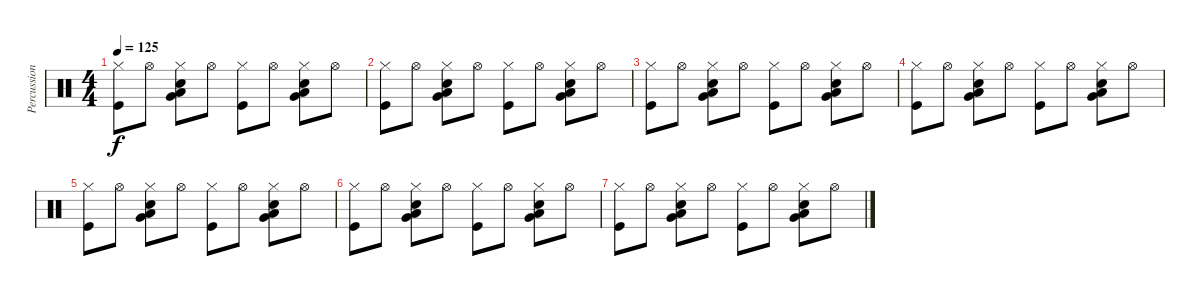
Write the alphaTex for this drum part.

\track ("Percussions" "Percussion") {instrument percussion}
\staff {score}
\articulation defaults
\ts (4 4)
\tempo 125
\clef neutral
\ks c
("Hi-Hat (closed)" "Kick (hit)").8{dy f} "Hi-Hat (open)".8 ("Hi-Hat (closed)" "Very Low Tom (hit)" "Low Floor Tom (hit)" "Snare (hit) 2").8 "Hi-Hat (open)".8 ("Hi-Hat (closed)" "Kick (hit)").8 "Hi-Hat (open)".8 ("Hi-Hat (closed)" "Very Low Tom (hit)" "Low Floor Tom (hit)" "Snare (hit) 2").8 "Hi-Hat (open)".8 |
("Hi-Hat (closed)" "Kick (hit)").8 "Hi-Hat (open)".8 ("Hi-Hat (closed)" "Very Low Tom (hit)" "Low Floor Tom (hit)" "Snare (hit) 2").8 "Hi-Hat (open)".8 ("Hi-Hat (closed)" "Kick (hit)").8 "Hi-Hat (open)".8 ("Hi-Hat (closed)" "Very Low Tom (hit)" "Low Floor Tom (hit)" "Snare (hit) 2").8 "Hi-Hat (open)".8 |
("Hi-Hat (closed)" "Kick (hit)").8 "Hi-Hat (open)".8 ("Hi-Hat (closed)" "Very Low Tom (hit)" "Low Floor Tom (hit)" "Snare (hit) 2").8 "Hi-Hat (open)".8 ("Hi-Hat (closed)" "Kick (hit)").8 "Hi-Hat (open)".8 ("Hi-Hat (closed)" "Very Low Tom (hit)" "Low Floor Tom (hit)" "Snare (hit) 2").8 "Hi-Hat (open)".8 |
("Hi-Hat (closed)" "Kick (hit)").8 "Hi-Hat (open)".8 ("Hi-Hat (closed)" "Very Low Tom (hit)" "Low Floor Tom (hit)" "Snare (hit) 2").8 "Hi-Hat (open)".8 ("Hi-Hat (closed)" "Kick (hit)").8 "Hi-Hat (open)".8 ("Hi-Hat (closed)" "Very Low Tom (hit)" "Low Floor Tom (hit)" "Snare (hit) 2").8 "Hi-Hat (open)".8 |
("Hi-Hat (closed)" "Kick (hit)").8 "Hi-Hat (open)".8 ("Hi-Hat (closed)" "Very Low Tom (hit)" "Low Floor Tom (hit)" "Snare (hit) 2").8 "Hi-Hat (open)".8 ("Hi-Hat (closed)" "Kick (hit)").8 "Hi-Hat (open)".8 ("Hi-Hat (closed)" "Very Low Tom (hit)" "Low Floor Tom (hit)" "Snare (hit) 2").8 "Hi-Hat (open)".8 |
("Hi-Hat (closed)" "Kick (hit)").8 "Hi-Hat (open)".8 ("Hi-Hat (closed)" "Very Low Tom (hit)" "Low Floor Tom (hit)" "Snare (hit) 2").8 "Hi-Hat (open)".8 ("Hi-Hat (closed)" "Kick (hit)").8 "Hi-Hat (open)".8 ("Hi-Hat (closed)" "Very Low Tom (hit)" "Low Floor Tom (hit)" "Snare (hit) 2").8 "Hi-Hat (open)".8 |
("Hi-Hat (closed)" "Kick (hit)").8 "Hi-Hat (open)".8 ("Hi-Hat (closed)" "Very Low Tom (hit)" "Low Floor Tom (hit)" "Snare (hit) 2").8 "Hi-Hat (open)".8 ("Hi-Hat (closed)" "Kick (hit)").8 "Hi-Hat (open)".8 ("Hi-Hat (closed)" "Very Low Tom (hit)" "Low Floor Tom (hit)" "Snare (hit) 2").8 "Hi-Hat (open)".8
